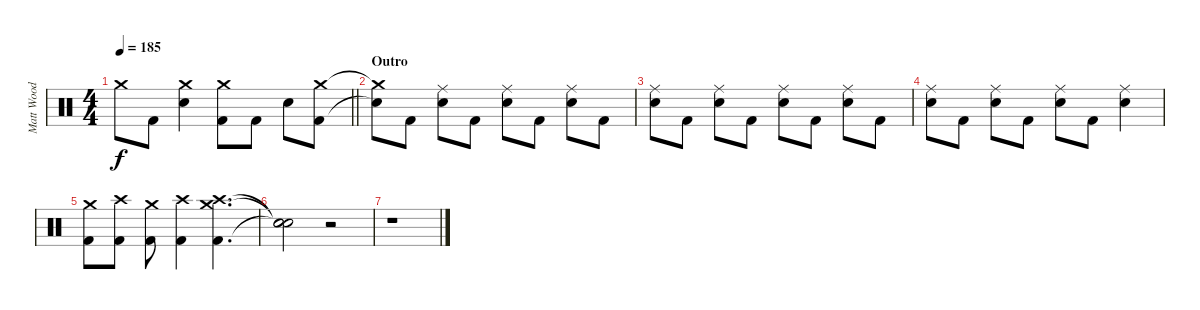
\track ("Matt Wood" "Matt Wood") {instrument percussion}
\staff {score}
\articulation defaults
\ts (4 4)
\tempo 185
\clef neutral
\barLineRight lightlight
\ks c "Crash medium (hit)".8{dy f} "Kick (hit) 2".8
("Crash medium (hit)" "Snare (hit) 2").4 ("Crash medium (hit)" "Kick (hit) 2").8 "Kick (hit) 2".8 "Snare (hit) 2".8 ("Crash medium (hit)" "Kick (hit) 2").8 |
\section ("" "Outro")
("Crash medium (hit)"{t} "Snare (hit)"{t}).8 "Kick (hit) 2".8 ("Ride (middle)" "Snare (hit) 2").8 "Kick (hit) 2".8 ("Ride (middle)" "Snare (hit) 2").8 "Kick (hit) 2".8 ("Ride (middle)" "Snare (hit) 2").8 "Kick (hit) 2".8 |
("Ride (middle)" "Snare (hit) 2").8 "Kick (hit) 2".8 ("Ride (middle)" "Snare (hit) 2").8 "Kick (hit) 2".8 ("Ride (middle)" "Snare (hit) 2").8 "Kick (hit) 2".8 ("Ride (middle)" "Snare (hit) 2").8 "Kick (hit) 2".8 |
("Ride (middle)" "Snare (hit) 2").8 "Kick (hit) 2".8 ("Ride (middle)" "Snare (hit) 2").8 "Kick (hit) 2".8 ("Ride (middle)" "Snare (hit) 2").8 "Kick (hit) 2".8 ("Ride (middle)" "Snare (hit) 2").4 |
("Crash medium (hit)" "Kick (hit) 2").8 ("Crash high (hit)" "Kick (hit) 2").8 ("Crash medium (hit)" "Kick (hit) 2").8 ("Crash high (hit)" "Kick (hit) 2").4 ("Crash medium (hit)" "Crash high (hit)" "Kick (hit) 2").4{d} |
("Snare (hit)"{t} "Snare (hit)"{t} "Snare (hit)"{t}).2 r.2 |
r.1
